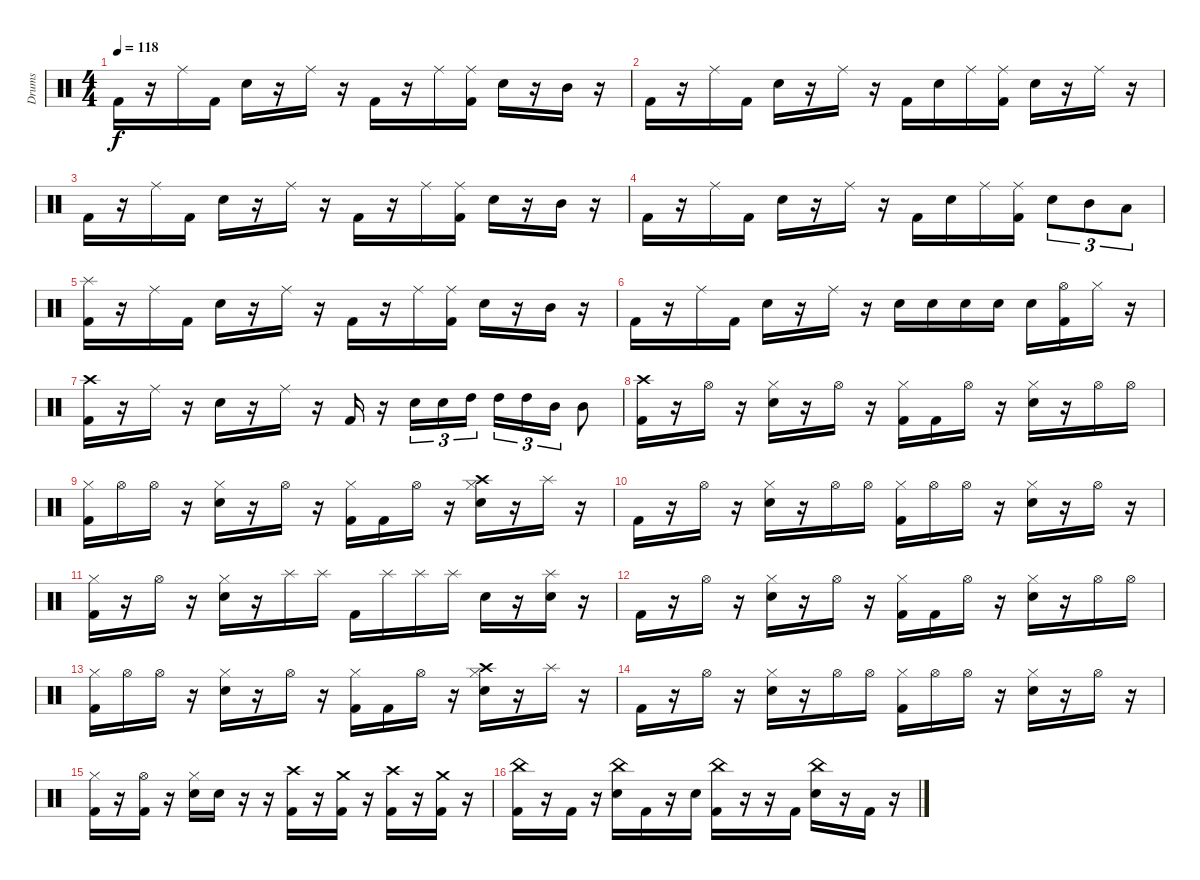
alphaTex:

\track ("Drums" "Drums") {instrument percussion}
\staff {score}
\articulation defaults
\ts (4 4)
\tempo 118
\clef neutral
\ks c "Kick (hit) 2".16{dy f}
r.16 "Ride (middle)".16 "Kick (hit) 2".16 "Snare (hit) 2".16 r.16 "Ride (middle)".16 r.16 "Kick (hit) 2".16 r.16 "Ride (middle)".16 ("Kick (hit) 2" "Ride (middle)").16 "Snare (hit) 2".16 r.16 "Mid Tom (hit)".16 r.16 |
"Kick (hit) 2".16 r.16 "Ride (middle)".16 "Kick (hit) 2".16 "Snare (hit) 2".16 r.16 "Ride (middle)".16 r.16 "Kick (hit) 2".16 "Snare (hit) 2".16 "Ride (middle)".16 ("Kick (hit) 2" "Ride (middle)").16 "Snare (hit) 2".16 r.16 "Ride (middle)".16 r.16 |
"Kick (hit) 2".16 r.16 "Ride (middle)".16 "Kick (hit) 2".16 "Snare (hit) 2".16 r.16 "Ride (middle)".16 r.16 "Kick (hit) 2".16 r.16 "Ride (middle)".16 ("Kick (hit) 2" "Ride (middle)").16 "Snare (hit) 2".16 r.16 "Mid Tom (hit)".16 r.16 |
"Kick (hit) 2".16 r.16 "Ride (middle)".16 "Kick (hit) 2".16 "Snare (hit) 2".16 r.16 "Ride (middle)".16 r.16 "Kick (hit) 2".16 "Snare (hit) 2".16 "Ride (middle)".16 ("Kick (hit) 2" "Ride (middle)").16 "Snare (hit) 2".8{tu (3 2)} "Mid Tom (hit)".8{tu (3 2)} "Low Tom (hit)".8{tu (3 2)} |
("Splash (hit)" "Kick (hit) 2").16 r.16 "Ride (middle)".16 "Kick (hit) 2".16 "Snare (hit) 2".16 r.16 "Ride (middle)".16 r.16 "Kick (hit) 2".16 r.16 "Ride (middle)".16 ("Kick (hit) 2" "Ride (middle)").16 "Snare (hit) 2".16 r.16 "Mid Tom (hit)".16 r.16 |
"Kick (hit) 2".16 r.16 "Ride (middle)".16 "Kick (hit) 2".16 "Snare (hit) 2".16 r.16 "Ride (middle)".16 r.16 "Snare (hit) 2".16 "Snare (hit) 2".16 "Snare (hit) 2".16 "Snare (hit) 2".16 "Snare (hit) 2".16 ("Kick (hit) 2" "Hi-Hat (open)").16 "Hi-Hat (closed)".16 r.16 |
("Crash high (hit)" "Kick (hit) 2").16 r.16 "Ride (middle)".16 r.16 "Snare (hit) 2".16 r.16 "Ride (middle)".16 r.16 "Kick (hit) 2".16 r.16 "Snare (hit) 2".16{tu (3 2)} "Snare (hit) 2".16{tu (3 2)} "High Tom (hit)".16{tu (3 2)} "High Tom (hit)".16{tu (3 2)} "High Tom (hit)".16{tu (3 2)} "Mid Tom (hit)".16{tu (3 2)} "Mid Tom (hit)".8 |
("Kick (hit) 2" "Crash high (hit)").16 r.16 "Hi-Hat (open)".16 r.16 ("Hi-Hat (closed)" "Snare (hit) 2").16 r.16 "Hi-Hat (open)".16 r.16 ("Hi-Hat (closed)" "Kick (hit) 2").16 "Kick (hit) 2".16 "Hi-Hat (open)".16 r.16 ("Hi-Hat (closed)" "Snare (hit) 2").16 r.16 "Hi-Hat (open)".16 "Hi-Hat (open)".16 |
("Kick (hit) 2" "Hi-Hat (closed)").16 "Hi-Hat (open)".16 "Hi-Hat (open)".16 r.16 ("Hi-Hat (closed)" "Snare (hit) 2").16 r.16 "Hi-Hat (open)".16 r.16 ("Hi-Hat (closed)" "Kick (hit) 2").16 "Kick (hit) 2".16 "Hi-Hat (open)".16 r.16 ("Crash high (hit)" "Snare (hit) 2" "Hi-Hat (closed)").16 r.16 "Splash (hit)".16 r.16 |
"Kick (hit) 2".16 r.16 "Hi-Hat (open)".16 r.16 ("Snare (hit) 2" "Hi-Hat (closed)").16 r.16 "Hi-Hat (open)".16 "Hi-Hat (open)".16 ("Kick (hit) 2" "Hi-Hat (closed)").16 "Hi-Hat (open)".16 "Hi-Hat (open)".16 r.16 ("Snare (hit) 2" "Hi-Hat (closed)").16 r.16 "Hi-Hat (open)".16 r.16 |
("Hi-Hat (closed)" "Kick (hit) 2").16 r.16 "Hi-Hat (open)".16 r.16 ("Hi-Hat (closed)" "Snare (hit) 2").16 r.16 "Splash (hit)".16 "Splash (hit)".16 "Kick (hit) 2".16 "Splash (hit)".16 "Splash (hit)".16 "Splash (hit)".16 "Snare (hit) 2".16 r.16 ("Snare (hit) 2" "Splash (hit)").16 r.16 |
"Kick (hit) 2".16 r.16 "Hi-Hat (open)".16 r.16 ("Hi-Hat (closed)" "Snare (hit) 2").16 r.16 "Hi-Hat (open)".16 r.16 ("Hi-Hat (closed)" "Kick (hit) 2").16 "Kick (hit) 2".16 "Hi-Hat (open)".16 r.16 ("Hi-Hat (closed)" "Snare (hit) 2").16 r.16 "Hi-Hat (open)".16 "Hi-Hat (open)".16 |
("Kick (hit) 2" "Hi-Hat (closed)").16 "Hi-Hat (open)".16 "Hi-Hat (open)".16 r.16 ("Hi-Hat (closed)" "Snare (hit) 2").16 r.16 "Hi-Hat (open)".16 r.16 ("Hi-Hat (closed)" "Kick (hit) 2").16 "Kick (hit) 2".16 "Hi-Hat (open)".16 r.16 ("Crash high (hit)" "Snare (hit) 2" "Hi-Hat (closed)").16 r.16 "Splash (hit)".16 r.16 |
"Kick (hit) 2".16 r.16 "Hi-Hat (open)".16 r.16 ("Snare (hit) 2" "Hi-Hat (closed)").16 r.16 "Hi-Hat (open)".16 "Hi-Hat (open)".16 ("Kick (hit) 2" "Hi-Hat (closed)").16 "Hi-Hat (open)".16 "Hi-Hat (open)".16 r.16 ("Snare (hit) 2" "Hi-Hat (closed)").16 r.16 "Hi-Hat (open)".16 r.16 |
("Kick (hit) 2" "Hi-Hat (closed)").16 r.16 ("Kick (hit) 2" "Hi-Hat (open)").16 r.16 ("Snare (hit) 2" "Hi-Hat (closed)").16 "Snare (hit) 2".16 r.16 r.16 ("Kick (hit) 2" "Crash high (hit)").16 r.16 ("Kick (hit) 2" "Crash medium (hit)").16 r.16 ("Kick (hit) 2" "Crash high (hit)").16 r.16 ("Kick (hit) 2" "Crash medium (hit)").16 r.16 |
("Kick (hit) 2" "China (hit)").16 r.16 "Kick (hit) 2".16 r.16 ("Snare (hit) 2" "China (hit)").16 "Kick (hit) 2".16 r.16 "Snare (hit) 2".16 ("Kick (hit) 2" "China (hit)").16 r.16 r.16 "Kick (hit) 2".16 ("Snare (hit) 2" "China (hit)").16 r.16 "Kick (hit) 2".16 r.16
